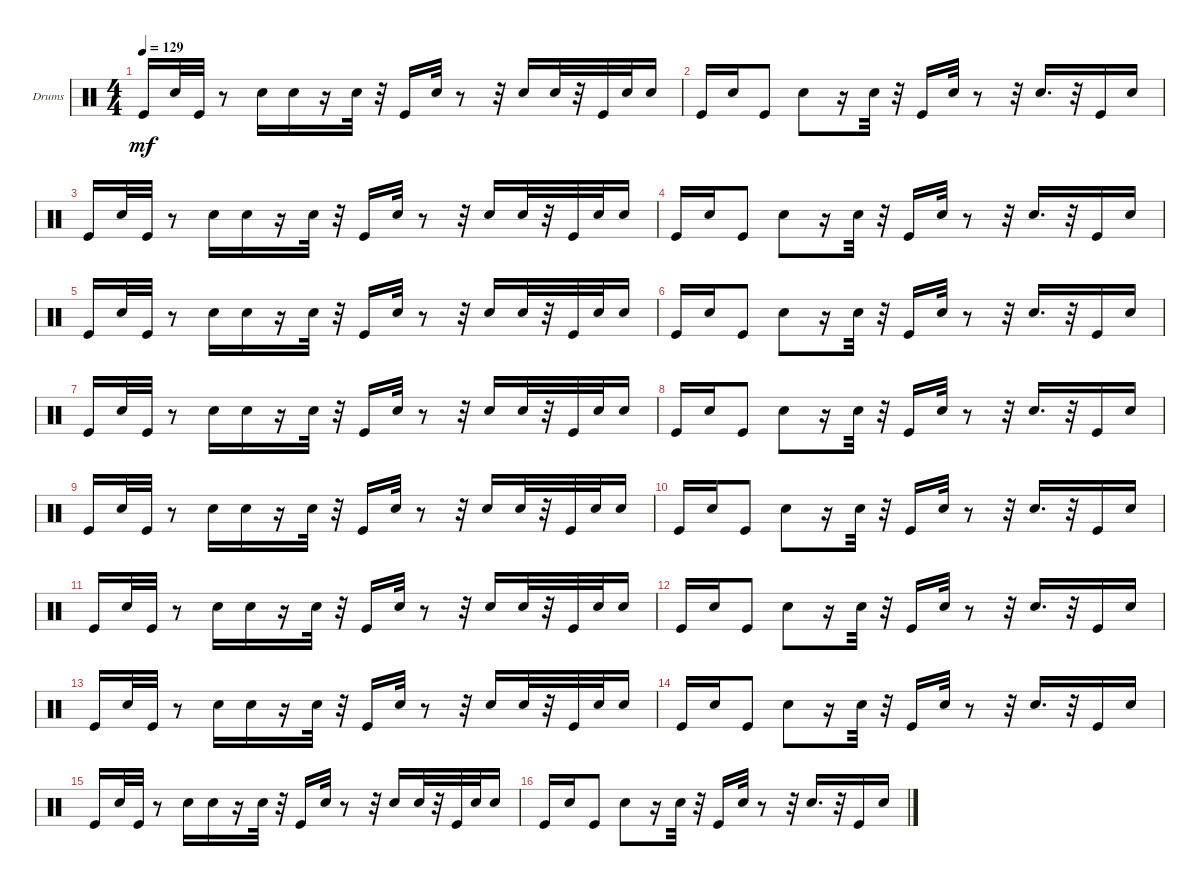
\bracketExtendMode groupsimilarinstruments
\firstSystemTrackNameOrientation horizontal
\otherSystemsTrackNameOrientation horizontal
\track ("istar" "Drums") {instrument percussion}
\staff {score}
\articulation defaults
\ts (4 4)
\tempo 129
\clef neutral
\ks c "Kick (hit)".16{dy mf} "Snare (hit) 2".32 "Kick (hit)".32
r.8 "Snare (hit) 2".16 "Snare (hit) 2".16 r.16 "Snare (hit) 2".32 r.32 "Kick (hit)".16 "Snare (hit) 2".32 r.8 r.32 "Snare (hit) 2".16 "Snare (hit) 2".32 r.32 "Kick (hit)".32 "Snare (hit) 2".32 "Snare (hit) 2".16 |
"Kick (hit)".16 "Snare (hit) 2".16 "Kick (hit)".8 "Snare (hit) 2".8 r.16 "Snare (hit) 2".32 r.32 "Kick (hit)".16 "Snare (hit) 2".32 r.8 r.32 "Snare (hit) 2".16{d} r.32 "Kick (hit)".16 "Snare (hit) 2".16 |
"Kick (hit)".16 "Snare (hit) 2".32 "Kick (hit)".32 r.8 "Snare (hit) 2".16 "Snare (hit) 2".16 r.16 "Snare (hit) 2".32 r.32 "Kick (hit)".16 "Snare (hit) 2".32 r.8 r.32 "Snare (hit) 2".16 "Snare (hit) 2".32 r.32 "Kick (hit)".32 "Snare (hit) 2".32 "Snare (hit) 2".16 |
"Kick (hit)".16 "Snare (hit) 2".16 "Kick (hit)".8 "Snare (hit) 2".8 r.16 "Snare (hit) 2".32 r.32 "Kick (hit)".16 "Snare (hit) 2".32 r.8 r.32 "Snare (hit) 2".16{d} r.32 "Kick (hit)".16 "Snare (hit) 2".16 |
"Kick (hit)".16 "Snare (hit) 2".32 "Kick (hit)".32 r.8 "Snare (hit) 2".16 "Snare (hit) 2".16 r.16 "Snare (hit) 2".32 r.32 "Kick (hit)".16 "Snare (hit) 2".32 r.8 r.32 "Snare (hit) 2".16 "Snare (hit) 2".32 r.32 "Kick (hit)".32 "Snare (hit) 2".32 "Snare (hit) 2".16 |
"Kick (hit)".16 "Snare (hit) 2".16 "Kick (hit)".8 "Snare (hit) 2".8 r.16 "Snare (hit) 2".32 r.32 "Kick (hit)".16 "Snare (hit) 2".32 r.8 r.32 "Snare (hit) 2".16{d} r.32 "Kick (hit)".16 "Snare (hit) 2".16 |
"Kick (hit)".16 "Snare (hit) 2".32 "Kick (hit)".32 r.8 "Snare (hit) 2".16 "Snare (hit) 2".16 r.16 "Snare (hit) 2".32 r.32 "Kick (hit)".16 "Snare (hit) 2".32 r.8 r.32 "Snare (hit) 2".16 "Snare (hit) 2".32 r.32 "Kick (hit)".32 "Snare (hit) 2".32 "Snare (hit) 2".16 |
"Kick (hit)".16 "Snare (hit) 2".16 "Kick (hit)".8 "Snare (hit) 2".8 r.16 "Snare (hit) 2".32 r.32 "Kick (hit)".16 "Snare (hit) 2".32 r.8 r.32 "Snare (hit) 2".16{d} r.32 "Kick (hit)".16 "Snare (hit) 2".16 |
"Kick (hit)".16 "Snare (hit) 2".32 "Kick (hit)".32 r.8 "Snare (hit) 2".16 "Snare (hit) 2".16 r.16 "Snare (hit) 2".32 r.32 "Kick (hit)".16 "Snare (hit) 2".32 r.8 r.32 "Snare (hit) 2".16 "Snare (hit) 2".32 r.32 "Kick (hit)".32 "Snare (hit) 2".32 "Snare (hit) 2".16 |
"Kick (hit)".16 "Snare (hit) 2".16 "Kick (hit)".8 "Snare (hit) 2".8 r.16 "Snare (hit) 2".32 r.32 "Kick (hit)".16 "Snare (hit) 2".32 r.8 r.32 "Snare (hit) 2".16{d} r.32 "Kick (hit)".16 "Snare (hit) 2".16 |
"Kick (hit)".16 "Snare (hit) 2".32 "Kick (hit)".32 r.8 "Snare (hit) 2".16 "Snare (hit) 2".16 r.16 "Snare (hit) 2".32 r.32 "Kick (hit)".16 "Snare (hit) 2".32 r.8 r.32 "Snare (hit) 2".16 "Snare (hit) 2".32 r.32 "Kick (hit)".32 "Snare (hit) 2".32 "Snare (hit) 2".16 |
"Kick (hit)".16 "Snare (hit) 2".16 "Kick (hit)".8 "Snare (hit) 2".8 r.16 "Snare (hit) 2".32 r.32 "Kick (hit)".16 "Snare (hit) 2".32 r.8 r.32 "Snare (hit) 2".16{d} r.32 "Kick (hit)".16 "Snare (hit) 2".16 |
"Kick (hit)".16 "Snare (hit) 2".32 "Kick (hit)".32 r.8 "Snare (hit) 2".16 "Snare (hit) 2".16 r.16 "Snare (hit) 2".32 r.32 "Kick (hit)".16 "Snare (hit) 2".32 r.8 r.32 "Snare (hit) 2".16 "Snare (hit) 2".32 r.32 "Kick (hit)".32 "Snare (hit) 2".32 "Snare (hit) 2".16 |
"Kick (hit)".16 "Snare (hit) 2".16 "Kick (hit)".8 "Snare (hit) 2".8 r.16 "Snare (hit) 2".32 r.32 "Kick (hit)".16 "Snare (hit) 2".32 r.8 r.32 "Snare (hit) 2".16{d} r.32 "Kick (hit)".16 "Snare (hit) 2".16 |
"Kick (hit)".16 "Snare (hit) 2".32 "Kick (hit)".32 r.8 "Snare (hit) 2".16 "Snare (hit) 2".16 r.16 "Snare (hit) 2".32 r.32 "Kick (hit)".16 "Snare (hit) 2".32 r.8 r.32 "Snare (hit) 2".16 "Snare (hit) 2".32 r.32 "Kick (hit)".32 "Snare (hit) 2".32 "Snare (hit) 2".16 |
"Kick (hit)".16 "Snare (hit) 2".16 "Kick (hit)".8 "Snare (hit) 2".8 r.16 "Snare (hit) 2".32 r.32 "Kick (hit)".16 "Snare (hit) 2".32 r.8 r.32 "Snare (hit) 2".16{d} r.32 "Kick (hit)".16 "Snare (hit) 2".16
